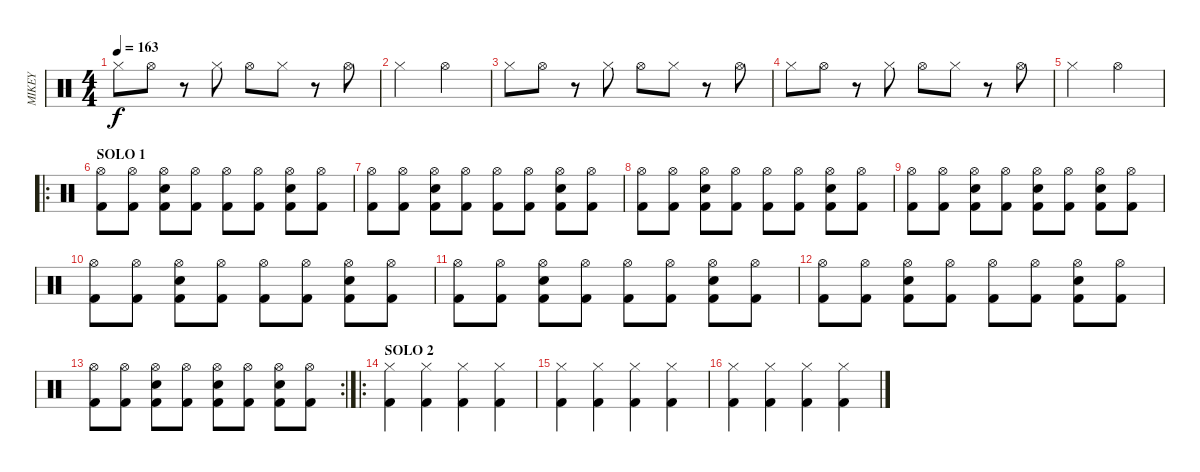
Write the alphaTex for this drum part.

\track ("MIKEY" "MIKEY") {instrument percussion}
\staff {score}
\articulation defaults
\ts (4 4)
\tempo 163
\clef neutral
\ks c "Hi-Hat (closed)".8{dy f} "Hi-Hat (open)".8
r.8 "Hi-Hat (closed)".8 "Hi-Hat (open)".8 "Hi-Hat (closed)".8 r.8 "Hi-Hat (open)".8 |
"Hi-Hat (closed)".2 "Hi-Hat (open)".2 |
"Hi-Hat (closed)".8 "Hi-Hat (open)".8 r.8 "Hi-Hat (closed)".8 "Hi-Hat (open)".8 "Hi-Hat (closed)".8 r.8 "Hi-Hat (open)".8 |
"Hi-Hat (closed)".8 "Hi-Hat (open)".8 r.8 "Hi-Hat (closed)".8 "Hi-Hat (open)".8 "Hi-Hat (closed)".8 r.8 "Hi-Hat (open)".8 |
"Hi-Hat (closed)".2 "Hi-Hat (open)".2 |
\ro
\section ("" "SOLO 1")
("Hi-Hat (open)" "Kick (hit) 2").8 ("Hi-Hat (open)" "Kick (hit) 2").8 ("Snare (hit) 2" "Hi-Hat (open)" "Kick (hit) 2").8 ("Hi-Hat (open)" "Kick (hit) 2").8 ("Hi-Hat (open)" "Kick (hit) 2").8 ("Hi-Hat (open)" "Kick (hit) 2").8 ("Snare (hit) 2" "Hi-Hat (open)" "Kick (hit) 2").8 ("Hi-Hat (open)" "Kick (hit) 2").8 |
("Hi-Hat (open)" "Kick (hit) 2").8 ("Hi-Hat (open)" "Kick (hit) 2").8 ("Snare (hit) 2" "Hi-Hat (open)" "Kick (hit) 2").8 ("Hi-Hat (open)" "Kick (hit) 2").8 ("Hi-Hat (open)" "Kick (hit) 2").8 ("Hi-Hat (open)" "Kick (hit) 2").8 ("Snare (hit) 2" "Hi-Hat (open)" "Kick (hit) 2").8 ("Hi-Hat (open)" "Kick (hit) 2").8 |
("Hi-Hat (open)" "Kick (hit) 2").8 ("Hi-Hat (open)" "Kick (hit) 2").8 ("Snare (hit) 2" "Hi-Hat (open)" "Kick (hit) 2").8 ("Hi-Hat (open)" "Kick (hit) 2").8 ("Hi-Hat (open)" "Kick (hit) 2").8 ("Hi-Hat (open)" "Kick (hit) 2").8 ("Snare (hit) 2" "Hi-Hat (open)" "Kick (hit) 2").8 ("Hi-Hat (open)" "Kick (hit) 2").8 |
("Hi-Hat (open)" "Kick (hit) 2").8 ("Hi-Hat (open)" "Kick (hit) 2").8 ("Snare (hit) 2" "Hi-Hat (open)" "Kick (hit) 2").8 ("Hi-Hat (open)" "Kick (hit) 2").8 ("Snare (hit) 2" "Hi-Hat (open)" "Kick (hit) 2").8 ("Hi-Hat (open)" "Kick (hit) 2").8 ("Snare (hit) 2" "Hi-Hat (open)" "Kick (hit) 2").8 ("Hi-Hat (open)" "Kick (hit) 2").8 |
("Hi-Hat (open)" "Kick (hit) 2").8 ("Hi-Hat (open)" "Kick (hit) 2").8 ("Snare (hit) 2" "Hi-Hat (open)" "Kick (hit) 2").8 ("Hi-Hat (open)" "Kick (hit) 2").8 ("Hi-Hat (open)" "Kick (hit) 2").8 ("Hi-Hat (open)" "Kick (hit) 2").8 ("Snare (hit) 2" "Hi-Hat (open)" "Kick (hit) 2").8 ("Hi-Hat (open)" "Kick (hit) 2").8 |
("Hi-Hat (open)" "Kick (hit) 2").8 ("Hi-Hat (open)" "Kick (hit) 2").8 ("Snare (hit) 2" "Hi-Hat (open)" "Kick (hit) 2").8 ("Hi-Hat (open)" "Kick (hit) 2").8 ("Hi-Hat (open)" "Kick (hit) 2").8 ("Hi-Hat (open)" "Kick (hit) 2").8 ("Snare (hit) 2" "Hi-Hat (open)" "Kick (hit) 2").8 ("Hi-Hat (open)" "Kick (hit) 2").8 |
("Hi-Hat (open)" "Kick (hit) 2").8 ("Hi-Hat (open)" "Kick (hit) 2").8 ("Snare (hit) 2" "Hi-Hat (open)" "Kick (hit) 2").8 ("Hi-Hat (open)" "Kick (hit) 2").8 ("Hi-Hat (open)" "Kick (hit) 2").8 ("Hi-Hat (open)" "Kick (hit) 2").8 ("Snare (hit) 2" "Hi-Hat (open)" "Kick (hit) 2").8 ("Hi-Hat (open)" "Kick (hit) 2").8 |
\rc 2
("Hi-Hat (open)" "Kick (hit) 2").8 ("Hi-Hat (open)" "Kick (hit) 2").8 ("Snare (hit) 2" "Hi-Hat (open)" "Kick (hit) 2").8 ("Hi-Hat (open)" "Kick (hit) 2").8 ("Snare (hit) 2" "Hi-Hat (open)" "Kick (hit) 2").8 ("Hi-Hat (open)" "Kick (hit) 2").8 ("Snare (hit) 2" "Hi-Hat (open)" "Kick (hit) 2").8 ("Hi-Hat (open)" "Kick (hit) 2").8 |
\ro
\section ("" "SOLO 2")
("Hi-Hat (closed)" "Kick (hit) 2").4 ("Hi-Hat (closed)" "Kick (hit) 2").4 ("Hi-Hat (closed)" "Kick (hit) 2").4 ("Hi-Hat (closed)" "Kick (hit) 2").4 |
("Hi-Hat (closed)" "Kick (hit) 2").4 ("Hi-Hat (closed)" "Kick (hit) 2").4 ("Hi-Hat (closed)" "Kick (hit) 2").4 ("Hi-Hat (closed)" "Kick (hit) 2").4 |
("Hi-Hat (closed)" "Kick (hit) 2").4 ("Hi-Hat (closed)" "Kick (hit) 2").4 ("Hi-Hat (closed)" "Kick (hit) 2").4 ("Hi-Hat (closed)" "Kick (hit) 2").4
